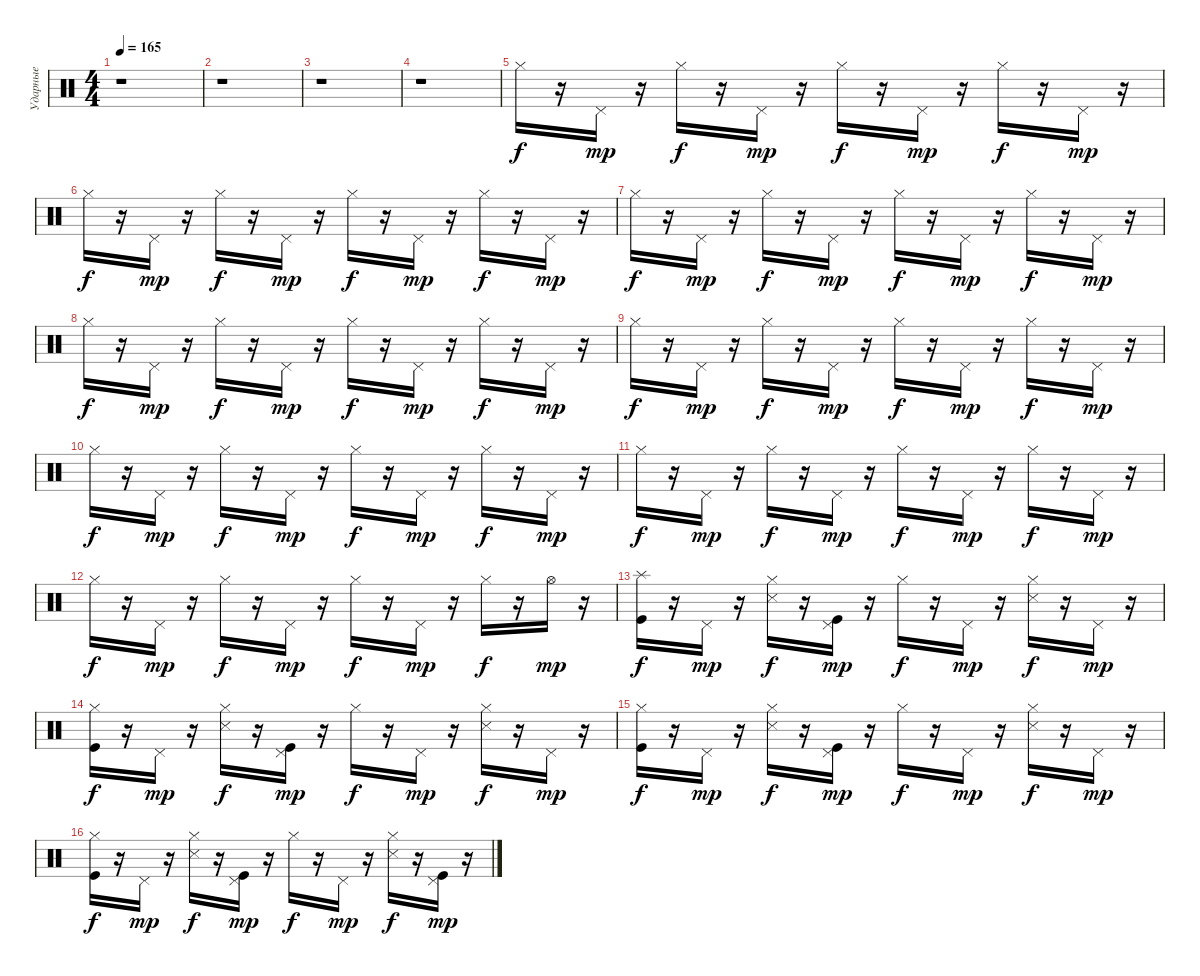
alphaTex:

\track ("Ударные" "Ударные") {instrument percussion}
\staff {score}
\articulation defaults
\ts (4 4)
\tempo 165
\clef neutral
\ks c
r.1{dy mp} |
r.1 |
r.1 |
r.1 |
"Hi-Hat (closed)".16{dy f} r.16 "Pedal Hi-Hat (hit)".16{dy mp} r.16 "Hi-Hat (closed)".16{dy f} r.16 "Pedal Hi-Hat (hit)".16{dy mp} r.16 "Hi-Hat (closed)".16{dy f} r.16 "Pedal Hi-Hat (hit)".16{dy mp} r.16 "Hi-Hat (closed)".16{dy f} r.16 "Pedal Hi-Hat (hit)".16{dy mp} r.16 |
"Hi-Hat (closed)".16{dy f} r.16 "Pedal Hi-Hat (hit)".16{dy mp} r.16 "Hi-Hat (closed)".16{dy f} r.16 "Pedal Hi-Hat (hit)".16{dy mp} r.16 "Hi-Hat (closed)".16{dy f} r.16 "Pedal Hi-Hat (hit)".16{dy mp} r.16 "Hi-Hat (closed)".16{dy f} r.16 "Pedal Hi-Hat (hit)".16{dy mp} r.16 |
"Hi-Hat (closed)".16{dy f} r.16 "Pedal Hi-Hat (hit)".16{dy mp} r.16 "Hi-Hat (closed)".16{dy f} r.16 "Pedal Hi-Hat (hit)".16{dy mp} r.16 "Hi-Hat (closed)".16{dy f} r.16 "Pedal Hi-Hat (hit)".16{dy mp} r.16 "Hi-Hat (closed)".16{dy f} r.16 "Pedal Hi-Hat (hit)".16{dy mp} r.16 |
"Hi-Hat (closed)".16{dy f} r.16 "Pedal Hi-Hat (hit)".16{dy mp} r.16 "Hi-Hat (closed)".16{dy f} r.16 "Pedal Hi-Hat (hit)".16{dy mp} r.16 "Hi-Hat (closed)".16{dy f} r.16 "Pedal Hi-Hat (hit)".16{dy mp} r.16 "Hi-Hat (closed)".16{dy f} r.16 "Pedal Hi-Hat (hit)".16{dy mp} r.16 |
"Hi-Hat (closed)".16{dy f} r.16 "Pedal Hi-Hat (hit)".16{dy mp} r.16 "Hi-Hat (closed)".16{dy f} r.16 "Pedal Hi-Hat (hit)".16{dy mp} r.16 "Hi-Hat (closed)".16{dy f} r.16 "Pedal Hi-Hat (hit)".16{dy mp} r.16 "Hi-Hat (closed)".16{dy f} r.16 "Pedal Hi-Hat (hit)".16{dy mp} r.16 |
"Hi-Hat (closed)".16{dy f} r.16 "Pedal Hi-Hat (hit)".16{dy mp} r.16 "Hi-Hat (closed)".16{dy f} r.16 "Pedal Hi-Hat (hit)".16{dy mp} r.16 "Hi-Hat (closed)".16{dy f} r.16 "Pedal Hi-Hat (hit)".16{dy mp} r.16 "Hi-Hat (closed)".16{dy f} r.16 "Pedal Hi-Hat (hit)".16{dy mp} r.16 |
"Hi-Hat (closed)".16{dy f} r.16 "Pedal Hi-Hat (hit)".16{dy mp} r.16 "Hi-Hat (closed)".16{dy f} r.16 "Pedal Hi-Hat (hit)".16{dy mp} r.16 "Hi-Hat (closed)".16{dy f} r.16 "Pedal Hi-Hat (hit)".16{dy mp} r.16 "Hi-Hat (closed)".16{dy f} r.16 "Pedal Hi-Hat (hit)".16{dy mp} r.16 |
"Hi-Hat (closed)".16{dy f} r.16 "Pedal Hi-Hat (hit)".16{dy mp} r.16 "Hi-Hat (closed)".16{dy f} r.16 "Pedal Hi-Hat (hit)".16{dy mp} r.16 "Hi-Hat (closed)".16{dy f} r.16 "Pedal Hi-Hat (hit)".16{dy mp} r.16 "Hi-Hat (closed)".16{dy f} r.16 "Hi-Hat (open)".16{dy mp} r.16 |
("Kick (hit)" "Splash (hit)").16{dy f} r.16 "Pedal Hi-Hat (hit)".16{dy mp} r.16 ("Hi-Hat (closed)" "Snare (side stick) 3").16{dy f} r.16 ("Kick (hit)" "Pedal Hi-Hat (hit)").16{dy mp} r.16 "Hi-Hat (closed)".16{dy f} r.16 "Pedal Hi-Hat (hit)".16{dy mp} r.16 ("Snare (side stick) 3" "Hi-Hat (closed)").16{dy f} r.16 "Pedal Hi-Hat (hit)".16{dy mp} r.16 |
("Hi-Hat (closed)" "Kick (hit)").16{dy f} r.16 "Pedal Hi-Hat (hit)".16{dy mp} r.16 ("Hi-Hat (closed)" "Snare (side stick) 3").16{dy f} r.16 ("Kick (hit)" "Pedal Hi-Hat (hit)").16{dy mp} r.16 "Hi-Hat (closed)".16{dy f} r.16 "Pedal Hi-Hat (hit)".16{dy mp} r.16 ("Hi-Hat (closed)" "Snare (side stick) 3").16{dy f} r.16 "Pedal Hi-Hat (hit)".16{dy mp} r.16 |
("Hi-Hat (closed)" "Kick (hit)").16{dy f} r.16 "Pedal Hi-Hat (hit)".16{dy mp} r.16 ("Snare (side stick) 3" "Hi-Hat (closed)").16{dy f} r.16 ("Kick (hit)" "Pedal Hi-Hat (hit)").16{dy mp} r.16 "Hi-Hat (closed)".16{dy f} r.16 "Pedal Hi-Hat (hit)".16{dy mp} r.16 ("Hi-Hat (closed)" "Snare (side stick) 3").16{dy f} r.16 "Pedal Hi-Hat (hit)".16{dy mp} r.16 |
("Hi-Hat (closed)" "Kick (hit)").16{dy f} r.16 "Pedal Hi-Hat (hit)".16{dy mp} r.16 ("Hi-Hat (closed)" "Snare (side stick) 3").16{dy f} r.16 ("Pedal Hi-Hat (hit)" "Kick (hit)").16{dy mp} r.16 "Hi-Hat (closed)".16{dy f} r.16 "Pedal Hi-Hat (hit)".16{dy mp} r.16 ("Hi-Hat (closed)" "Snare (side stick) 3").16{dy f} r.16 ("Pedal Hi-Hat (hit)" "Kick (hit)").16{dy mp} r.16
